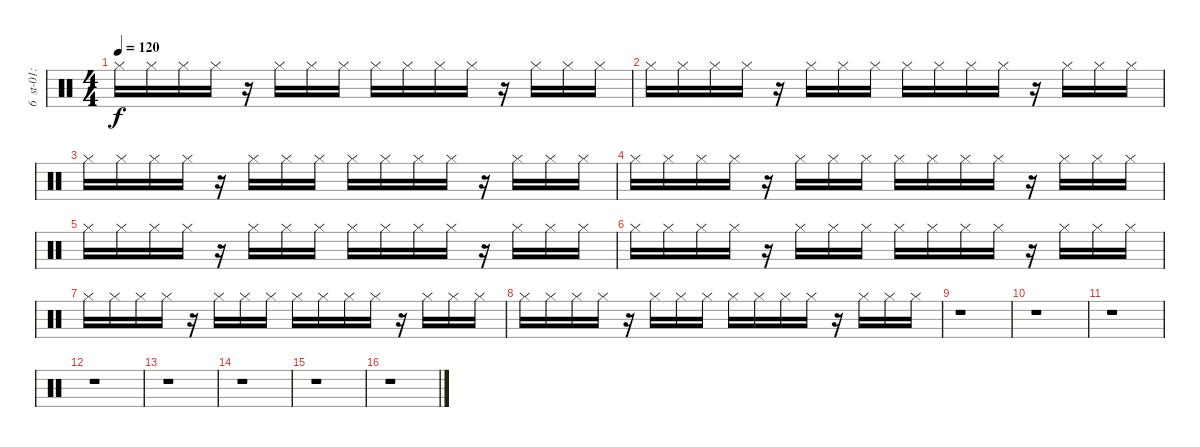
\track (" 6  st-01:hihat2" " 6  st-01:") {instrument percussion}
\staff {score}
\articulation defaults
\ts (4 4)
\tempo 120
\clef neutral
\ks c "Hi-Hat (closed)".16{dy f} "Hi-Hat (closed)".16 "Hi-Hat (closed)".16 "Hi-Hat (closed)".16
r.16 "Hi-Hat (closed)".16 "Hi-Hat (closed)".16 "Hi-Hat (closed)".16 "Hi-Hat (closed)".16 "Hi-Hat (closed)".16 "Hi-Hat (closed)".16 "Hi-Hat (closed)".16 r.16 "Hi-Hat (closed)".16 "Hi-Hat (closed)".16 "Hi-Hat (closed)".16 |
"Hi-Hat (closed)".16 "Hi-Hat (closed)".16 "Hi-Hat (closed)".16 "Hi-Hat (closed)".16 r.16 "Hi-Hat (closed)".16 "Hi-Hat (closed)".16 "Hi-Hat (closed)".16 "Hi-Hat (closed)".16 "Hi-Hat (closed)".16 "Hi-Hat (closed)".16 "Hi-Hat (closed)".16 r.16 "Hi-Hat (closed)".16 "Hi-Hat (closed)".16 "Hi-Hat (closed)".16 |
"Hi-Hat (closed)".16 "Hi-Hat (closed)".16 "Hi-Hat (closed)".16 "Hi-Hat (closed)".16 r.16 "Hi-Hat (closed)".16 "Hi-Hat (closed)".16 "Hi-Hat (closed)".16 "Hi-Hat (closed)".16 "Hi-Hat (closed)".16 "Hi-Hat (closed)".16 "Hi-Hat (closed)".16 r.16 "Hi-Hat (closed)".16 "Hi-Hat (closed)".16 "Hi-Hat (closed)".16 |
"Hi-Hat (closed)".16 "Hi-Hat (closed)".16 "Hi-Hat (closed)".16 "Hi-Hat (closed)".16 r.16 "Hi-Hat (closed)".16 "Hi-Hat (closed)".16 "Hi-Hat (closed)".16 "Hi-Hat (closed)".16 "Hi-Hat (closed)".16 "Hi-Hat (closed)".16 "Hi-Hat (closed)".16 r.16 "Hi-Hat (closed)".16 "Hi-Hat (closed)".16 "Hi-Hat (closed)".16 |
"Hi-Hat (closed)".16 "Hi-Hat (closed)".16 "Hi-Hat (closed)".16 "Hi-Hat (closed)".16 r.16 "Hi-Hat (closed)".16 "Hi-Hat (closed)".16 "Hi-Hat (closed)".16 "Hi-Hat (closed)".16 "Hi-Hat (closed)".16 "Hi-Hat (closed)".16 "Hi-Hat (closed)".16 r.16 "Hi-Hat (closed)".16 "Hi-Hat (closed)".16 "Hi-Hat (closed)".16 |
"Hi-Hat (closed)".16 "Hi-Hat (closed)".16 "Hi-Hat (closed)".16 "Hi-Hat (closed)".16 r.16 "Hi-Hat (closed)".16 "Hi-Hat (closed)".16 "Hi-Hat (closed)".16 "Hi-Hat (closed)".16 "Hi-Hat (closed)".16 "Hi-Hat (closed)".16 "Hi-Hat (closed)".16 r.16 "Hi-Hat (closed)".16 "Hi-Hat (closed)".16 "Hi-Hat (closed)".16 |
"Hi-Hat (closed)".16 "Hi-Hat (closed)".16 "Hi-Hat (closed)".16 "Hi-Hat (closed)".16 r.16 "Hi-Hat (closed)".16 "Hi-Hat (closed)".16 "Hi-Hat (closed)".16 "Hi-Hat (closed)".16 "Hi-Hat (closed)".16 "Hi-Hat (closed)".16 "Hi-Hat (closed)".16 r.16 "Hi-Hat (closed)".16 "Hi-Hat (closed)".16 "Hi-Hat (closed)".16 |
"Hi-Hat (closed)".16 "Hi-Hat (closed)".16 "Hi-Hat (closed)".16 "Hi-Hat (closed)".16 r.16 "Hi-Hat (closed)".16 "Hi-Hat (closed)".16 "Hi-Hat (closed)".16 "Hi-Hat (closed)".16 "Hi-Hat (closed)".16 "Hi-Hat (closed)".16 "Hi-Hat (closed)".16 r.16 "Hi-Hat (closed)".16 "Hi-Hat (closed)".16 "Hi-Hat (closed)".16 |
r.1 |
r.1 |
r.1 |
r.1 |
r.1 |
r.1 |
r.1 |
r.1
